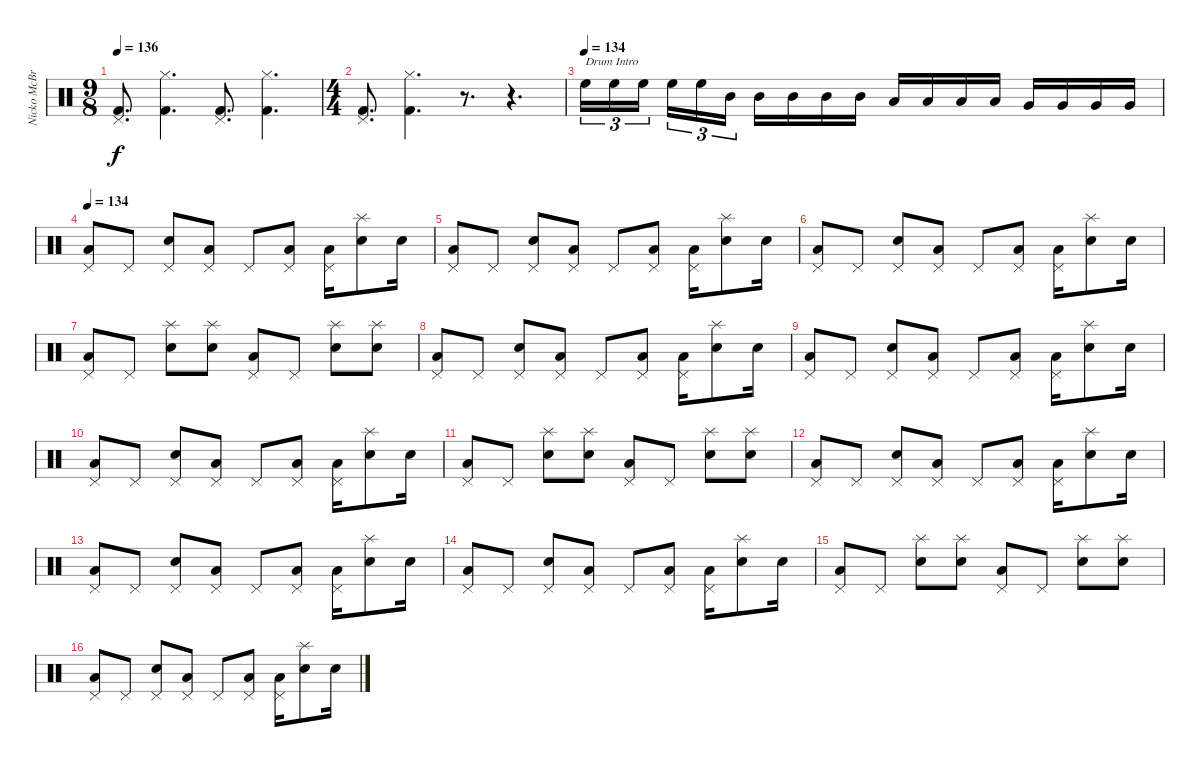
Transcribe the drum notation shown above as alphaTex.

\track ("Nicko McBrian" "Nicko McBr") {instrument percussion}
\staff {score}
\articulation defaults
\ts (9 8)
\tempo 136
\clef neutral
\ks c
("Pedal Hi-Hat (hit)" "Kick (hit) 2").8{d dy f} ("Hi-Hat (closed)" "Kick (hit) 2").4{d} ("Pedal Hi-Hat (hit)" "Kick (hit) 2").8{d} ("Hi-Hat (closed)" "Kick (hit) 2").4{d} |
\ts (4 4)
("Pedal Hi-Hat (hit)" "Kick (hit) 2").8{d} ("Hi-Hat (closed)" "Kick (hit) 2").4{d} r.8{d} r.4{d} |
\tempo (134)
"High Floor Tom (hit)".16{tu (3 2) txt "Drum Intro"} "High Floor Tom (hit)".16{tu (3 2)} "High Floor Tom (hit)".16{tu (3 2) beam splitsecondary} "High Floor Tom (hit)".16{tu (3 2)} "High Floor Tom (hit)".16{tu (3 2)} "Mid Tom (hit)".16{tu (3 2)} "Mid Tom (hit)".16 "Mid Tom (hit)".16 "Mid Tom (hit)".16 "Mid Tom (hit)".16 "Low Tom (hit)".16 "Low Tom (hit)".16 "Low Tom (hit)".16 "Low Tom (hit)".16 "Very Low Tom (hit)".16 "Very Low Tom (hit)".16 "Very Low Tom (hit)".16 "Very Low Tom (hit)".16 |
\tempo 134
("Low Floor Tom (hit)" "Pedal Hi-Hat (hit)").8 "Pedal Hi-Hat (hit)".8 ("Electric Snare (hit)" "Pedal Hi-Hat (hit)").8 ("Low Floor Tom (hit)" "Pedal Hi-Hat (hit)").8 "Pedal Hi-Hat (hit)".8 ("Low Floor Tom (hit)" "Pedal Hi-Hat (hit)").8 ("Low Floor Tom (hit)" "Pedal Hi-Hat (hit)").16 ("Electric Snare (hit)" "Splash (hit)").8 "Electric Snare (hit)".16 |
("Low Floor Tom (hit)" "Pedal Hi-Hat (hit)").8 "Pedal Hi-Hat (hit)".8 ("Electric Snare (hit)" "Pedal Hi-Hat (hit)").8 ("Low Floor Tom (hit)" "Pedal Hi-Hat (hit)").8 "Pedal Hi-Hat (hit)".8 ("Low Floor Tom (hit)" "Pedal Hi-Hat (hit)").8 ("Low Floor Tom (hit)" "Pedal Hi-Hat (hit)").16 ("Electric Snare (hit)" "Splash (hit)").8 "Electric Snare (hit)".16 |
("Low Floor Tom (hit)" "Pedal Hi-Hat (hit)").8 "Pedal Hi-Hat (hit)".8 ("Electric Snare (hit)" "Pedal Hi-Hat (hit)").8 ("Low Floor Tom (hit)" "Pedal Hi-Hat (hit)").8 "Pedal Hi-Hat (hit)".8 ("Low Floor Tom (hit)" "Pedal Hi-Hat (hit)").8 ("Low Floor Tom (hit)" "Pedal Hi-Hat (hit)").16 ("Electric Snare (hit)" "Splash (hit)").8 "Electric Snare (hit)".16 |
("Low Floor Tom (hit)" "Pedal Hi-Hat (hit)").8 "Pedal Hi-Hat (hit)".8 ("Electric Snare (hit)" "Splash (hit)").8 ("Electric Snare (hit)" "Splash (hit)").8 ("Low Floor Tom (hit)" "Pedal Hi-Hat (hit)").8 "Pedal Hi-Hat (hit)".8 ("Electric Snare (hit)" "Splash (hit)").8 ("Electric Snare (hit)" "Splash (hit)").8 |
("Low Floor Tom (hit)" "Pedal Hi-Hat (hit)").8 "Pedal Hi-Hat (hit)".8 ("Electric Snare (hit)" "Pedal Hi-Hat (hit)").8 ("Low Floor Tom (hit)" "Pedal Hi-Hat (hit)").8 "Pedal Hi-Hat (hit)".8 ("Low Floor Tom (hit)" "Pedal Hi-Hat (hit)").8 ("Low Floor Tom (hit)" "Pedal Hi-Hat (hit)").16 ("Electric Snare (hit)" "Splash (hit)").8 "Electric Snare (hit)".16 |
("Low Floor Tom (hit)" "Pedal Hi-Hat (hit)").8 "Pedal Hi-Hat (hit)".8 ("Electric Snare (hit)" "Pedal Hi-Hat (hit)").8 ("Low Floor Tom (hit)" "Pedal Hi-Hat (hit)").8 "Pedal Hi-Hat (hit)".8 ("Low Floor Tom (hit)" "Pedal Hi-Hat (hit)").8 ("Low Floor Tom (hit)" "Pedal Hi-Hat (hit)").16 ("Electric Snare (hit)" "Splash (hit)").8 "Electric Snare (hit)".16 |
("Low Floor Tom (hit)" "Pedal Hi-Hat (hit)").8 "Pedal Hi-Hat (hit)".8 ("Electric Snare (hit)" "Pedal Hi-Hat (hit)").8 ("Low Floor Tom (hit)" "Pedal Hi-Hat (hit)").8 "Pedal Hi-Hat (hit)".8 ("Low Floor Tom (hit)" "Pedal Hi-Hat (hit)").8 ("Low Floor Tom (hit)" "Pedal Hi-Hat (hit)").16 ("Electric Snare (hit)" "Splash (hit)").8 "Electric Snare (hit)".16 |
("Low Floor Tom (hit)" "Pedal Hi-Hat (hit)").8 "Pedal Hi-Hat (hit)".8 ("Electric Snare (hit)" "Splash (hit)").8 ("Electric Snare (hit)" "Splash (hit)").8 ("Low Floor Tom (hit)" "Pedal Hi-Hat (hit)").8 "Pedal Hi-Hat (hit)".8 ("Electric Snare (hit)" "Splash (hit)").8 ("Electric Snare (hit)" "Splash (hit)").8 |
("Low Floor Tom (hit)" "Pedal Hi-Hat (hit)").8 "Pedal Hi-Hat (hit)".8 ("Electric Snare (hit)" "Pedal Hi-Hat (hit)").8 ("Low Floor Tom (hit)" "Pedal Hi-Hat (hit)").8 "Pedal Hi-Hat (hit)".8 ("Low Floor Tom (hit)" "Pedal Hi-Hat (hit)").8 ("Low Floor Tom (hit)" "Pedal Hi-Hat (hit)").16 ("Electric Snare (hit)" "Splash (hit)").8 "Electric Snare (hit)".16 |
("Low Floor Tom (hit)" "Pedal Hi-Hat (hit)").8 "Pedal Hi-Hat (hit)".8 ("Electric Snare (hit)" "Pedal Hi-Hat (hit)").8 ("Low Floor Tom (hit)" "Pedal Hi-Hat (hit)").8 "Pedal Hi-Hat (hit)".8 ("Low Floor Tom (hit)" "Pedal Hi-Hat (hit)").8 ("Low Floor Tom (hit)" "Pedal Hi-Hat (hit)").16 ("Electric Snare (hit)" "Splash (hit)").8 "Electric Snare (hit)".16 |
("Low Floor Tom (hit)" "Pedal Hi-Hat (hit)").8 "Pedal Hi-Hat (hit)".8 ("Electric Snare (hit)" "Pedal Hi-Hat (hit)").8 ("Low Floor Tom (hit)" "Pedal Hi-Hat (hit)").8 "Pedal Hi-Hat (hit)".8 ("Low Floor Tom (hit)" "Pedal Hi-Hat (hit)").8 ("Low Floor Tom (hit)" "Pedal Hi-Hat (hit)").16 ("Electric Snare (hit)" "Splash (hit)").8 "Electric Snare (hit)".16 |
("Low Floor Tom (hit)" "Pedal Hi-Hat (hit)").8 "Pedal Hi-Hat (hit)".8 ("Electric Snare (hit)" "Splash (hit)").8 ("Electric Snare (hit)" "Splash (hit)").8 ("Low Floor Tom (hit)" "Pedal Hi-Hat (hit)").8 "Pedal Hi-Hat (hit)".8 ("Electric Snare (hit)" "Splash (hit)").8 ("Electric Snare (hit)" "Splash (hit)").8 |
("Low Floor Tom (hit)" "Pedal Hi-Hat (hit)").8 "Pedal Hi-Hat (hit)".8 ("Electric Snare (hit)" "Pedal Hi-Hat (hit)").8 ("Low Floor Tom (hit)" "Pedal Hi-Hat (hit)").8 "Pedal Hi-Hat (hit)".8 ("Low Floor Tom (hit)" "Pedal Hi-Hat (hit)").8 ("Low Floor Tom (hit)" "Pedal Hi-Hat (hit)").16 ("Electric Snare (hit)" "Splash (hit)").8 "Electric Snare (hit)".16
